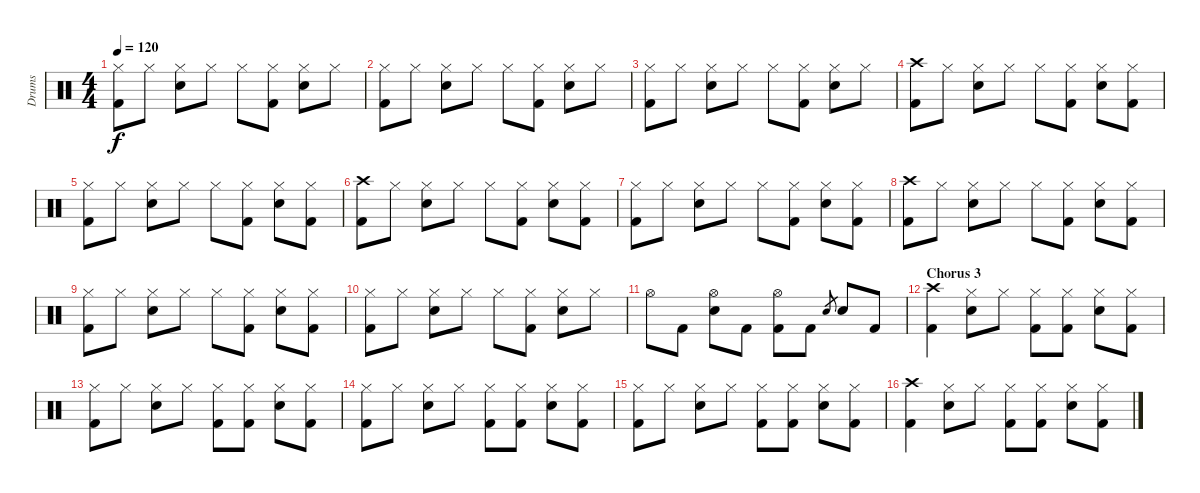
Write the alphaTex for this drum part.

\track ("Drums" "Drums") {instrument percussion}
\staff {score}
\articulation defaults
\ts (4 4)
\tempo 120
\clef neutral
\ks c
("Hi-Hat (closed)" "Kick (hit) 2").8{dy f} "Hi-Hat (closed)".8 ("Hi-Hat (closed)" "Electric Snare (hit)").8 "Hi-Hat (closed)".8 "Hi-Hat (closed)".8 ("Hi-Hat (closed)" "Kick (hit) 2").8 ("Hi-Hat (closed)" "Electric Snare (hit)").8 "Hi-Hat (closed)".8 |
("Hi-Hat (closed)" "Kick (hit) 2").8 "Hi-Hat (closed)".8 ("Hi-Hat (closed)" "Electric Snare (hit)").8 "Hi-Hat (closed)".8 "Hi-Hat (closed)".8 ("Hi-Hat (closed)" "Kick (hit) 2").8 ("Hi-Hat (closed)" "Electric Snare (hit)").8 "Hi-Hat (closed)".8 |
("Hi-Hat (closed)" "Kick (hit) 2").8 "Hi-Hat (closed)".8 ("Hi-Hat (closed)" "Electric Snare (hit)").8 "Hi-Hat (closed)".8 "Hi-Hat (closed)".8 ("Hi-Hat (closed)" "Kick (hit) 2").8 ("Hi-Hat (closed)" "Electric Snare (hit)").8 "Hi-Hat (closed)".8 |
("Crash high (hit)" "Kick (hit) 2").8 "Hi-Hat (closed)".8 ("Hi-Hat (closed)" "Electric Snare (hit)").8 "Hi-Hat (closed)".8 "Hi-Hat (closed)".8 ("Hi-Hat (closed)" "Kick (hit) 2").8 ("Hi-Hat (closed)" "Electric Snare (hit)").8 ("Hi-Hat (closed)" "Kick (hit) 2").8 |
("Hi-Hat (closed)" "Kick (hit) 2").8 "Hi-Hat (closed)".8 ("Hi-Hat (closed)" "Electric Snare (hit)").8 "Hi-Hat (closed)".8 "Hi-Hat (closed)".8 ("Hi-Hat (closed)" "Kick (hit) 2").8 ("Hi-Hat (closed)" "Electric Snare (hit)").8 ("Hi-Hat (closed)" "Kick (hit) 2").8 |
("Crash high (hit)" "Kick (hit) 2").8 "Hi-Hat (closed)".8 ("Hi-Hat (closed)" "Electric Snare (hit)").8 "Hi-Hat (closed)".8 "Hi-Hat (closed)".8 ("Hi-Hat (closed)" "Kick (hit) 2").8 ("Hi-Hat (closed)" "Electric Snare (hit)").8 ("Hi-Hat (closed)" "Kick (hit) 2").8 |
("Hi-Hat (closed)" "Kick (hit) 2").8 "Hi-Hat (closed)".8 ("Hi-Hat (closed)" "Electric Snare (hit)").8 "Hi-Hat (closed)".8 "Hi-Hat (closed)".8 ("Hi-Hat (closed)" "Kick (hit) 2").8 ("Hi-Hat (closed)" "Electric Snare (hit)").8 ("Hi-Hat (closed)" "Kick (hit) 2").8 |
("Crash high (hit)" "Kick (hit) 2").8 "Hi-Hat (closed)".8 ("Hi-Hat (closed)" "Electric Snare (hit)").8 "Hi-Hat (closed)".8 "Hi-Hat (closed)".8 ("Hi-Hat (closed)" "Kick (hit) 2").8 ("Hi-Hat (closed)" "Electric Snare (hit)").8 ("Hi-Hat (closed)" "Kick (hit) 2").8 |
("Hi-Hat (closed)" "Kick (hit) 2").8 "Hi-Hat (closed)".8 ("Hi-Hat (closed)" "Electric Snare (hit)").8 "Hi-Hat (closed)".8 "Hi-Hat (closed)".8 ("Hi-Hat (closed)" "Kick (hit) 2").8 ("Hi-Hat (closed)" "Electric Snare (hit)").8 ("Hi-Hat (closed)" "Kick (hit) 2").8 |
("Hi-Hat (closed)" "Kick (hit) 2").8 "Hi-Hat (closed)".8 ("Hi-Hat (closed)" "Electric Snare (hit)").8 "Hi-Hat (closed)".8 "Hi-Hat (closed)".8 ("Hi-Hat (closed)" "Kick (hit) 2").8 ("Hi-Hat (closed)" "Electric Snare (hit)").8 "Hi-Hat (closed)".8 |
"Hi-Hat (open)".8 "Kick (hit) 2".8 ("Hi-Hat (open)" "Electric Snare (hit)").8 "Kick (hit) 2".8 ("Hi-Hat (open)" "Kick (hit) 2").8 "Kick (hit) 2".8 "Electric Snare (hit)".8{gr} "Electric Snare (hit)".8 "Kick (hit) 2".8 |
\section ("" "Chorus 3")
("Crash high (hit)" "Kick (hit) 2").4 ("Hi-Hat (closed)" "Electric Snare (hit)").8 "Hi-Hat (closed)".8 ("Hi-Hat (closed)" "Kick (hit) 2").8 ("Hi-Hat (closed)" "Kick (hit) 2").8 ("Hi-Hat (closed)" "Electric Snare (hit)").8 ("Hi-Hat (closed)" "Kick (hit) 2").8 |
("Hi-Hat (closed)" "Kick (hit) 2").8 "Hi-Hat (closed)".8 ("Hi-Hat (closed)" "Electric Snare (hit)").8 "Hi-Hat (closed)".8 ("Hi-Hat (closed)" "Kick (hit) 2").8 ("Hi-Hat (closed)" "Kick (hit) 2").8 ("Hi-Hat (closed)" "Electric Snare (hit)").8 ("Hi-Hat (closed)" "Kick (hit) 2").8 |
("Hi-Hat (closed)" "Kick (hit) 2").8 "Hi-Hat (closed)".8 ("Hi-Hat (closed)" "Electric Snare (hit)").8 "Hi-Hat (closed)".8 ("Hi-Hat (closed)" "Kick (hit) 2").8 ("Hi-Hat (closed)" "Kick (hit) 2").8 ("Hi-Hat (closed)" "Electric Snare (hit)").8 ("Hi-Hat (closed)" "Kick (hit) 2").8 |
("Hi-Hat (closed)" "Kick (hit) 2").8 "Hi-Hat (closed)".8 ("Hi-Hat (closed)" "Electric Snare (hit)").8 "Hi-Hat (closed)".8 ("Hi-Hat (closed)" "Kick (hit) 2").8 ("Hi-Hat (closed)" "Kick (hit) 2").8 ("Hi-Hat (closed)" "Electric Snare (hit)").8 ("Hi-Hat (closed)" "Kick (hit) 2").8 |
("Crash high (hit)" "Kick (hit) 2").4 ("Hi-Hat (closed)" "Electric Snare (hit)").8 "Hi-Hat (closed)".8 ("Hi-Hat (closed)" "Kick (hit) 2").8 ("Hi-Hat (closed)" "Kick (hit) 2").8 ("Hi-Hat (closed)" "Electric Snare (hit)").8 ("Hi-Hat (closed)" "Kick (hit) 2").8
